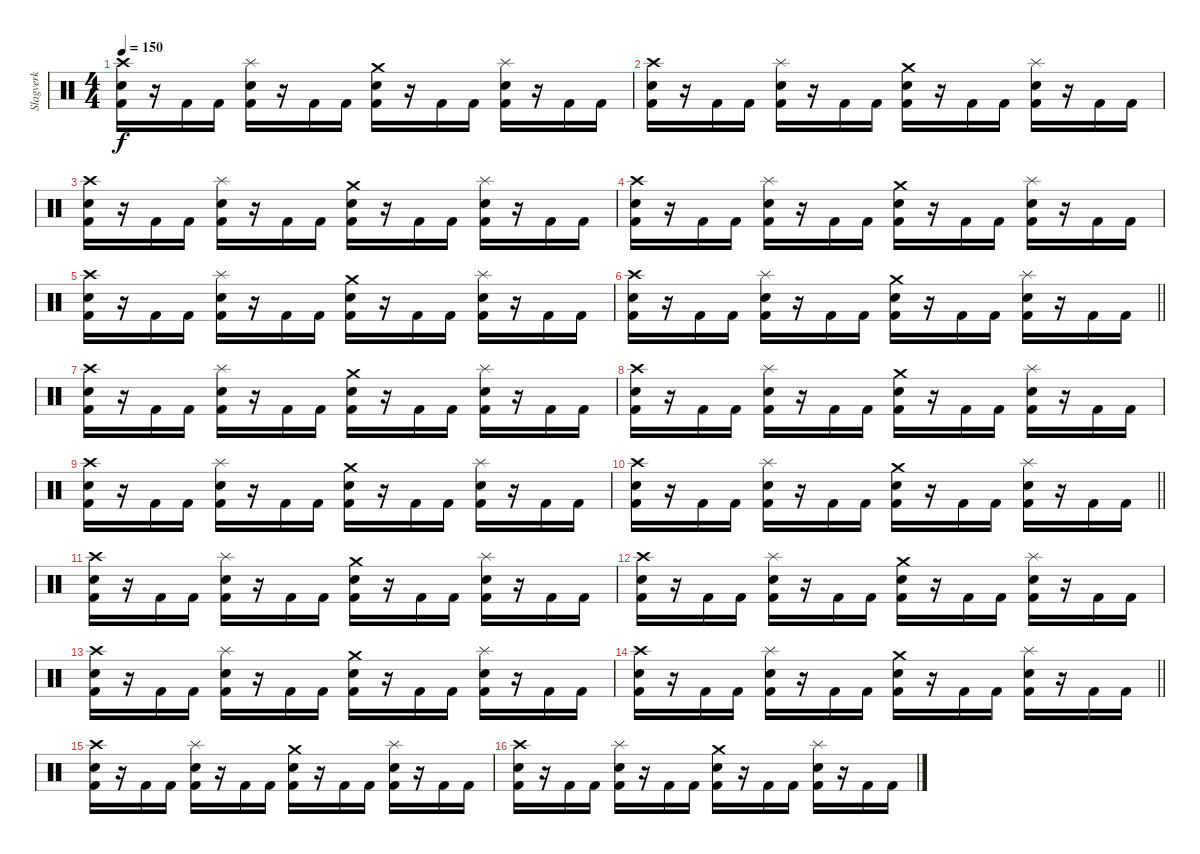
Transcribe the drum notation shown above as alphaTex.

\track ("Slagverk" "Slagverk") {instrument percussion}
\staff {score}
\articulation defaults
\ts (4 4)
\tempo 150
\clef neutral
\ks c
("Crash high (hit)" "Snare (hit) 2" "Kick (hit) 2").16{dy f} r.16 "Kick (hit) 2".16 "Kick (hit) 2".16 ("Splash (hit)" "Snare (hit) 2" "Kick (hit) 2").16 r.16 "Kick (hit) 2".16 "Kick (hit) 2".16 ("Crash medium (hit)" "Snare (hit) 2" "Kick (hit) 2").16 r.16 "Kick (hit) 2".16 "Kick (hit) 2".16 ("Splash (hit)" "Snare (hit) 2" "Kick (hit) 2").16 r.16 "Kick (hit) 2".16 "Kick (hit) 2".16 |
("Crash high (hit)" "Snare (hit) 2" "Kick (hit) 2").16 r.16 "Kick (hit) 2".16 "Kick (hit) 2".16 ("Splash (hit)" "Snare (hit) 2" "Kick (hit) 2").16 r.16 "Kick (hit) 2".16 "Kick (hit) 2".16 ("Crash medium (hit)" "Snare (hit) 2" "Kick (hit) 2").16 r.16 "Kick (hit) 2".16 "Kick (hit) 2".16 ("Splash (hit)" "Snare (hit) 2" "Kick (hit) 2").16 r.16 "Kick (hit) 2".16 "Kick (hit) 2".16 |
("Crash high (hit)" "Snare (hit) 2" "Kick (hit) 2").16 r.16 "Kick (hit) 2".16 "Kick (hit) 2".16 ("Splash (hit)" "Snare (hit) 2" "Kick (hit) 2").16 r.16 "Kick (hit) 2".16 "Kick (hit) 2".16 ("Crash medium (hit)" "Snare (hit) 2" "Kick (hit) 2").16 r.16 "Kick (hit) 2".16 "Kick (hit) 2".16 ("Splash (hit)" "Snare (hit) 2" "Kick (hit) 2").16 r.16 "Kick (hit) 2".16 "Kick (hit) 2".16 |
("Crash high (hit)" "Snare (hit) 2" "Kick (hit) 2").16 r.16 "Kick (hit) 2".16 "Kick (hit) 2".16 ("Splash (hit)" "Snare (hit) 2" "Kick (hit) 2").16 r.16 "Kick (hit) 2".16 "Kick (hit) 2".16 ("Crash medium (hit)" "Snare (hit) 2" "Kick (hit) 2").16 r.16 "Kick (hit) 2".16 "Kick (hit) 2".16 ("Splash (hit)" "Snare (hit) 2" "Kick (hit) 2").16 r.16 "Kick (hit) 2".16 "Kick (hit) 2".16 |
("Crash high (hit)" "Snare (hit) 2" "Kick (hit) 2").16 r.16 "Kick (hit) 2".16 "Kick (hit) 2".16 ("Splash (hit)" "Snare (hit) 2" "Kick (hit) 2").16 r.16 "Kick (hit) 2".16 "Kick (hit) 2".16 ("Crash medium (hit)" "Snare (hit) 2" "Kick (hit) 2").16 r.16 "Kick (hit) 2".16 "Kick (hit) 2".16 ("Splash (hit)" "Snare (hit) 2" "Kick (hit) 2").16 r.16 "Kick (hit) 2".16 "Kick (hit) 2".16 |
\barLineRight lightlight
("Crash high (hit)" "Snare (hit) 2" "Kick (hit) 2").16 r.16 "Kick (hit) 2".16 "Kick (hit) 2".16 ("Splash (hit)" "Snare (hit) 2" "Kick (hit) 2").16 r.16 "Kick (hit) 2".16 "Kick (hit) 2".16 ("Crash medium (hit)" "Snare (hit) 2" "Kick (hit) 2").16 r.16 "Kick (hit) 2".16 "Kick (hit) 2".16 ("Splash (hit)" "Snare (hit) 2" "Kick (hit) 2").16 r.16 "Kick (hit) 2".16 "Kick (hit) 2".16 |
("Crash high (hit)" "Snare (hit) 2" "Kick (hit) 2").16 r.16 "Kick (hit) 2".16 "Kick (hit) 2".16 ("Splash (hit)" "Snare (hit) 2" "Kick (hit) 2").16 r.16 "Kick (hit) 2".16 "Kick (hit) 2".16 ("Crash medium (hit)" "Snare (hit) 2" "Kick (hit) 2").16 r.16 "Kick (hit) 2".16 "Kick (hit) 2".16 ("Splash (hit)" "Snare (hit) 2" "Kick (hit) 2").16 r.16 "Kick (hit) 2".16 "Kick (hit) 2".16 |
("Crash high (hit)" "Snare (hit) 2" "Kick (hit) 2").16 r.16 "Kick (hit) 2".16 "Kick (hit) 2".16 ("Splash (hit)" "Snare (hit) 2" "Kick (hit) 2").16 r.16 "Kick (hit) 2".16 "Kick (hit) 2".16 ("Crash medium (hit)" "Snare (hit) 2" "Kick (hit) 2").16 r.16 "Kick (hit) 2".16 "Kick (hit) 2".16 ("Splash (hit)" "Snare (hit) 2" "Kick (hit) 2").16 r.16 "Kick (hit) 2".16 "Kick (hit) 2".16 |
("Crash high (hit)" "Snare (hit) 2" "Kick (hit) 2").16 r.16 "Kick (hit) 2".16 "Kick (hit) 2".16 ("Splash (hit)" "Snare (hit) 2" "Kick (hit) 2").16 r.16 "Kick (hit) 2".16 "Kick (hit) 2".16 ("Crash medium (hit)" "Snare (hit) 2" "Kick (hit) 2").16 r.16 "Kick (hit) 2".16 "Kick (hit) 2".16 ("Splash (hit)" "Snare (hit) 2" "Kick (hit) 2").16 r.16 "Kick (hit) 2".16 "Kick (hit) 2".16 |
\barLineRight lightlight
("Crash high (hit)" "Snare (hit) 2" "Kick (hit) 2").16 r.16 "Kick (hit) 2".16 "Kick (hit) 2".16 ("Splash (hit)" "Snare (hit) 2" "Kick (hit) 2").16 r.16 "Kick (hit) 2".16 "Kick (hit) 2".16 ("Crash medium (hit)" "Snare (hit) 2" "Kick (hit) 2").16 r.16 "Kick (hit) 2".16 "Kick (hit) 2".16 ("Splash (hit)" "Snare (hit) 2" "Kick (hit) 2").16 r.16 "Kick (hit) 2".16 "Kick (hit) 2".16 |
("Crash high (hit)" "Snare (hit) 2" "Kick (hit) 2").16 r.16 "Kick (hit) 2".16 "Kick (hit) 2".16 ("Splash (hit)" "Snare (hit) 2" "Kick (hit) 2").16 r.16 "Kick (hit) 2".16 "Kick (hit) 2".16 ("Crash medium (hit)" "Snare (hit) 2" "Kick (hit) 2").16 r.16 "Kick (hit) 2".16 "Kick (hit) 2".16 ("Splash (hit)" "Snare (hit) 2" "Kick (hit) 2").16 r.16 "Kick (hit) 2".16 "Kick (hit) 2".16 |
("Crash high (hit)" "Snare (hit) 2" "Kick (hit) 2").16 r.16 "Kick (hit) 2".16 "Kick (hit) 2".16 ("Splash (hit)" "Snare (hit) 2" "Kick (hit) 2").16 r.16 "Kick (hit) 2".16 "Kick (hit) 2".16 ("Crash medium (hit)" "Snare (hit) 2" "Kick (hit) 2").16 r.16 "Kick (hit) 2".16 "Kick (hit) 2".16 ("Splash (hit)" "Snare (hit) 2" "Kick (hit) 2").16 r.16 "Kick (hit) 2".16 "Kick (hit) 2".16 |
("Crash high (hit)" "Snare (hit) 2" "Kick (hit) 2").16 r.16 "Kick (hit) 2".16 "Kick (hit) 2".16 ("Splash (hit)" "Snare (hit) 2" "Kick (hit) 2").16 r.16 "Kick (hit) 2".16 "Kick (hit) 2".16 ("Crash medium (hit)" "Snare (hit) 2" "Kick (hit) 2").16 r.16 "Kick (hit) 2".16 "Kick (hit) 2".16 ("Splash (hit)" "Snare (hit) 2" "Kick (hit) 2").16 r.16 "Kick (hit) 2".16 "Kick (hit) 2".16 |
\barLineRight lightlight
("Crash high (hit)" "Snare (hit) 2" "Kick (hit) 2").16 r.16 "Kick (hit) 2".16 "Kick (hit) 2".16 ("Splash (hit)" "Snare (hit) 2" "Kick (hit) 2").16 r.16 "Kick (hit) 2".16 "Kick (hit) 2".16 ("Crash medium (hit)" "Snare (hit) 2" "Kick (hit) 2").16 r.16 "Kick (hit) 2".16 "Kick (hit) 2".16 ("Splash (hit)" "Snare (hit) 2" "Kick (hit) 2").16 r.16 "Kick (hit) 2".16 "Kick (hit) 2".16 |
("Crash high (hit)" "Snare (hit) 2" "Kick (hit) 2").16 r.16 "Kick (hit) 2".16 "Kick (hit) 2".16 ("Splash (hit)" "Snare (hit) 2" "Kick (hit) 2").16 r.16 "Kick (hit) 2".16 "Kick (hit) 2".16 ("Crash medium (hit)" "Snare (hit) 2" "Kick (hit) 2").16 r.16 "Kick (hit) 2".16 "Kick (hit) 2".16 ("Splash (hit)" "Snare (hit) 2" "Kick (hit) 2").16 r.16 "Kick (hit) 2".16 "Kick (hit) 2".16 |
("Crash high (hit)" "Snare (hit) 2" "Kick (hit) 2").16 r.16 "Kick (hit) 2".16 "Kick (hit) 2".16 ("Splash (hit)" "Snare (hit) 2" "Kick (hit) 2").16 r.16 "Kick (hit) 2".16 "Kick (hit) 2".16 ("Crash medium (hit)" "Snare (hit) 2" "Kick (hit) 2").16 r.16 "Kick (hit) 2".16 "Kick (hit) 2".16 ("Splash (hit)" "Snare (hit) 2" "Kick (hit) 2").16 r.16 "Kick (hit) 2".16 "Kick (hit) 2".16
